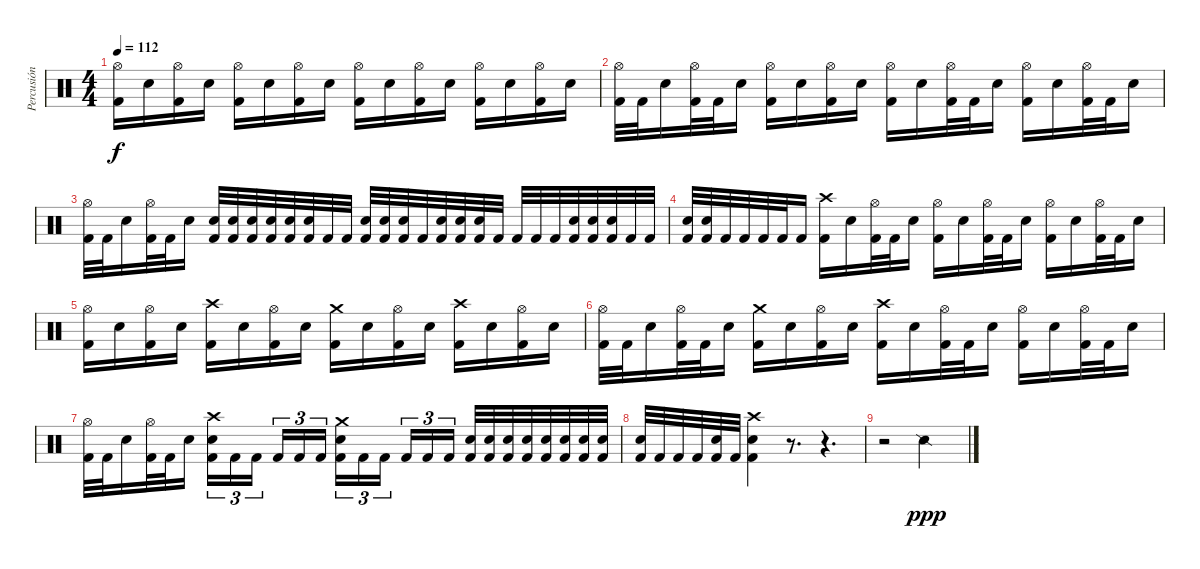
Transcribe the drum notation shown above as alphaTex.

\track ("Percusión" "Percusión") {instrument percussion}
\staff {score}
\articulation defaults
\ts (4 4)
\tempo 112
\clef neutral
\ks c
("Hi-Hat (open)" "Kick (hit) 2").16{dy f} "Electric Snare (hit)".16 ("Hi-Hat (open)" "Kick (hit) 2").16 "Electric Snare (hit)".16 ("Hi-Hat (open)" "Kick (hit) 2").16 "Electric Snare (hit)".16 ("Hi-Hat (open)" "Kick (hit) 2").16 "Electric Snare (hit)".16 ("Hi-Hat (open)" "Kick (hit) 2").16 "Electric Snare (hit)".16 ("Hi-Hat (open)" "Kick (hit) 2").16 "Electric Snare (hit)".16 ("Hi-Hat (open)" "Kick (hit) 2").16 "Electric Snare (hit)".16 ("Hi-Hat (open)" "Kick (hit) 2").16 "Electric Snare (hit)".16 |
("Hi-Hat (open)" "Kick (hit) 2").32 "Kick (hit) 2".32 "Electric Snare (hit)".16 ("Hi-Hat (open)" "Kick (hit) 2").32 "Kick (hit) 2".32 "Electric Snare (hit)".16 ("Hi-Hat (open)" "Kick (hit) 2").16 "Electric Snare (hit)".16 ("Hi-Hat (open)" "Kick (hit) 2").16 "Electric Snare (hit)".16 ("Hi-Hat (open)" "Kick (hit) 2").16 "Electric Snare (hit)".16 ("Hi-Hat (open)" "Kick (hit) 2").32 "Kick (hit) 2".32 "Electric Snare (hit)".16 ("Hi-Hat (open)" "Kick (hit) 2").16 "Electric Snare (hit)".16 ("Hi-Hat (open)" "Kick (hit) 2").32 "Kick (hit) 2".32 "Electric Snare (hit)".16 |
("Hi-Hat (open)" "Kick (hit) 2").32 "Kick (hit) 2".32 "Electric Snare (hit)".16 ("Hi-Hat (open)" "Kick (hit) 2").32 "Kick (hit) 2".32 "Electric Snare (hit)".16 ("Electric Snare (hit)" "Kick (hit) 2").32 ("Electric Snare (hit)" "Kick (hit) 2").32 ("Electric Snare (hit)" "Kick (hit) 2").32 ("Electric Snare (hit)" "Kick (hit) 2").32 ("Electric Snare (hit)" "Kick (hit) 2").32 ("Electric Snare (hit)" "Kick (hit) 2").32 "Kick (hit) 2".32 "Kick (hit) 2".32 ("Electric Snare (hit)" "Kick (hit) 2").32 ("Electric Snare (hit)" "Kick (hit) 2").32 ("Electric Snare (hit)" "Kick (hit) 2").32 "Kick (hit) 2".32 ("Electric Snare (hit)" "Kick (hit) 2").32 ("Electric Snare (hit)" "Kick (hit) 2").32 ("Electric Snare (hit)" "Kick (hit) 2").32 "Kick (hit) 2".32 "Kick (hit) 2".32 "Kick (hit) 2".32 "Kick (hit) 2".32 ("Electric Snare (hit)" "Kick (hit) 2").32 ("Electric Snare (hit)" "Kick (hit) 2").32 ("Electric Snare (hit)" "Kick (hit) 2").32 "Kick (hit) 2".32 "Kick (hit) 2".32 |
("Electric Snare (hit)" "Kick (hit) 2").32 ("Electric Snare (hit)" "Kick (hit) 2").32 "Kick (hit) 2".32 "Kick (hit) 2".32 "Kick (hit) 2".32 "Kick (hit) 2".32 "Kick (hit) 2".16 ("Kick (hit) 2" "Crash high (hit)").16 "Electric Snare (hit)".16 ("Hi-Hat (open)" "Kick (hit) 2").32 "Kick (hit) 2".32 "Electric Snare (hit)".16 ("Hi-Hat (open)" "Kick (hit) 2").16 "Electric Snare (hit)".16 ("Hi-Hat (open)" "Kick (hit) 2").32 "Kick (hit) 2".32 "Electric Snare (hit)".16 ("Hi-Hat (open)" "Kick (hit) 2").16 "Electric Snare (hit)".16 ("Hi-Hat (open)" "Kick (hit) 2").32 "Kick (hit) 2".32 "Electric Snare (hit)".16 |
("Hi-Hat (open)" "Kick (hit) 2").16 "Electric Snare (hit)".16 ("Hi-Hat (open)" "Kick (hit) 2").16 "Electric Snare (hit)".16 ("Kick (hit) 2" "Crash high (hit)").16 "Electric Snare (hit)".16 ("Hi-Hat (open)" "Kick (hit) 2").16 "Electric Snare (hit)".16 ("Kick (hit) 2" "Crash medium (hit)").16 "Electric Snare (hit)".16 ("Hi-Hat (open)" "Kick (hit) 2").16 "Electric Snare (hit)".16 ("Kick (hit) 2" "Crash high (hit)").16 "Electric Snare (hit)".16 ("Hi-Hat (open)" "Kick (hit) 2").16 "Electric Snare (hit)".16 |
("Hi-Hat (open)" "Kick (hit) 2").32 "Kick (hit) 2".32 "Electric Snare (hit)".16 ("Hi-Hat (open)" "Kick (hit) 2").32 "Kick (hit) 2".32 "Electric Snare (hit)".16 ("Kick (hit) 2" "Crash medium (hit)").16 "Electric Snare (hit)".16 ("Hi-Hat (open)" "Kick (hit) 2").16 "Electric Snare (hit)".16 ("Kick (hit) 2" "Crash high (hit)").16 "Electric Snare (hit)".16 ("Hi-Hat (open)" "Kick (hit) 2").32 "Kick (hit) 2".32 "Electric Snare (hit)".16 ("Hi-Hat (open)" "Kick (hit) 2").16 "Electric Snare (hit)".16 ("Hi-Hat (open)" "Kick (hit) 2").32 "Kick (hit) 2".32 "Electric Snare (hit)".16 |
("Hi-Hat (open)" "Kick (hit) 2").32 "Kick (hit) 2".32 "Electric Snare (hit)".16 ("Hi-Hat (open)" "Kick (hit) 2").32 "Kick (hit) 2".32 "Electric Snare (hit)".16 ("Electric Snare (hit)" "Kick (hit) 2" "Crash high (hit)").16{tu (3 2)} "Kick (hit) 2".16{tu (3 2)} "Kick (hit) 2".16{tu (3 2) beam splitsecondary} "Kick (hit) 2".16{tu (3 2)} "Kick (hit) 2".16{tu (3 2)} "Kick (hit) 2".16{tu (3 2)} ("Electric Snare (hit)" "Kick (hit) 2" "Crash medium (hit)").16{tu (3 2)} "Kick (hit) 2".16{tu (3 2)} "Kick (hit) 2".16{tu (3 2) beam splitsecondary} "Kick (hit) 2".16{tu (3 2)} "Kick (hit) 2".16{tu (3 2)} "Kick (hit) 2".16{tu (3 2)} ("Electric Snare (hit)" "Kick (hit) 2").32 ("Electric Snare (hit)" "Kick (hit) 2").32 ("Electric Snare (hit)" "Kick (hit) 2").32 ("Electric Snare (hit)" "Kick (hit) 2").32 ("Electric Snare (hit)" "Kick (hit) 2").32 ("Electric Snare (hit)" "Kick (hit) 2").32 ("Electric Snare (hit)" "Kick (hit) 2").32 ("Electric Snare (hit)" "Kick (hit) 2").32 |
("Electric Snare (hit)" "Kick (hit) 2").32 "Kick (hit) 2".32 "Kick (hit) 2".32 "Kick (hit) 2".32 ("Electric Snare (hit)" "Kick (hit) 2").32 "Kick (hit) 2".32 ("Electric Snare (hit)" "Kick (hit) 2" "Crash high (hit)").4 r.8{d} r.4{d} |
r.2 "Snare (side stick) 2".2{dy ppp}
